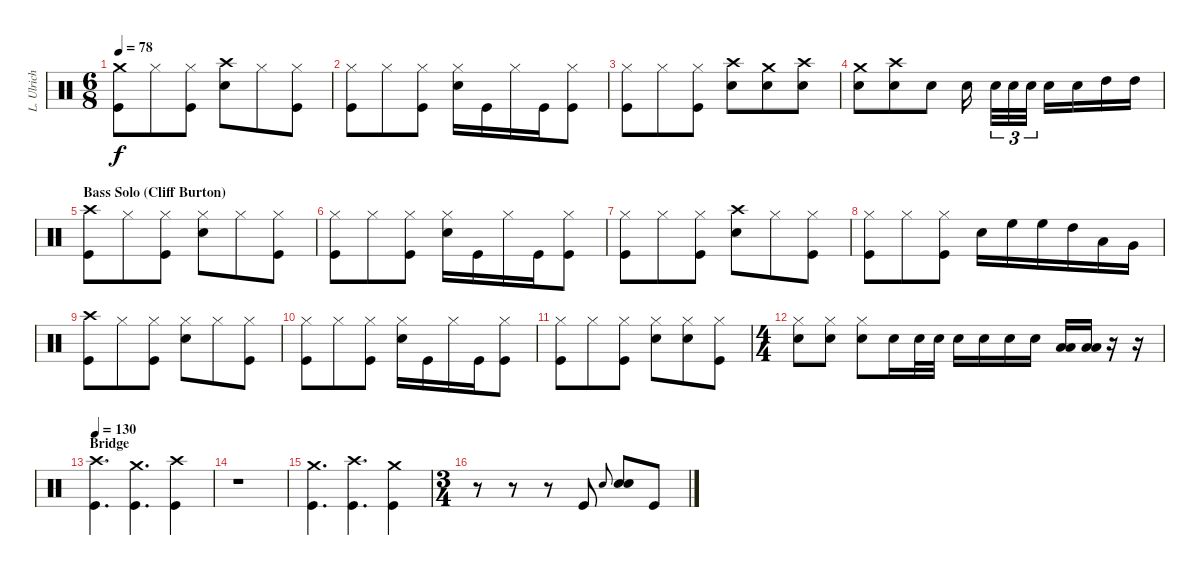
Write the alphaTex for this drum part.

\track ("L. Ulrich" "L. Ulrich") {instrument percussion}
\staff {score}
\articulation defaults
\ts (6 8)
\tempo 78
\clef neutral
\ks c
("Crash medium (hit)" "Kick (hit)").8{dy f} "Hi-Hat (closed)".8 ("Hi-Hat (closed)" "Kick (hit)").8 ("Crash high (hit)" "Snare (hit) 2").8 "Hi-Hat (closed)".8 ("Hi-Hat (closed)" "Kick (hit)").8 |
("Hi-Hat (closed)" "Kick (hit)").8 "Hi-Hat (closed)".8 ("Hi-Hat (closed)" "Kick (hit)").8 ("Hi-Hat (closed)" "Snare (hit) 2").16 "Kick (hit)".16 "Hi-Hat (closed)".16 "Kick (hit)".16 ("Hi-Hat (closed)" "Kick (hit)").8 |
("Hi-Hat (closed)" "Kick (hit)").8 "Hi-Hat (closed)".8 ("Hi-Hat (closed)" "Kick (hit)").8 ("Crash high (hit)" "Snare (hit) 2").8 ("Crash medium (hit)" "Snare (hit) 2").8 ("Crash high (hit)" "Snare (hit) 2").8 |
("Crash medium (hit)" "Snare (hit) 2").8 ("Crash high (hit)" "Snare (hit) 2").8 "Snare (hit) 2".8 "Snare (hit) 2".16 "Snare (hit) 2".32{tu (3 2)} "Snare (hit) 2".32{tu (3 2)} "Snare (hit) 2".32{tu (3 2)} "Snare (hit) 2".16 "Snare (hit) 2".16 "High Tom (hit)".16 "High Tom (hit)".16 |
\section ("" "Bass Solo (Cliff Burton)")
("Crash high (hit)" "Kick (hit)").8 "Hi-Hat (closed)".8 ("Hi-Hat (closed)" "Kick (hit)").8 ("Hi-Hat (closed)" "Snare (hit) 2").8 "Hi-Hat (closed)".8 ("Hi-Hat (closed)" "Kick (hit)").8 |
("Hi-Hat (closed)" "Kick (hit)").8 "Hi-Hat (closed)".8 ("Hi-Hat (closed)" "Kick (hit)").8 ("Hi-Hat (closed)" "Snare (hit) 2").16 "Kick (hit)".16 "Hi-Hat (closed)".16 "Kick (hit)".16 ("Hi-Hat (closed)" "Kick (hit)").8 |
("Hi-Hat (closed)" "Kick (hit)").8 "Hi-Hat (closed)".8 ("Hi-Hat (closed)" "Kick (hit)").8 ("Crash high (hit)" "Snare (hit) 2").8 "Hi-Hat (closed)".8 ("Hi-Hat (closed)" "Kick (hit)").8 |
("Hi-Hat (closed)" "Kick (hit)").8 "Hi-Hat (closed)".8 ("Hi-Hat (closed)" "Kick (hit)").8 "Snare (hit) 2".16 "High Floor Tom (hit)".16 "High Floor Tom (hit)".16 "High Tom (hit)".16 "Low Tom (hit)".16 "Very Low Tom (hit)".16 |
("Crash high (hit)" "Kick (hit)").8 "Hi-Hat (closed)".8 ("Hi-Hat (closed)" "Kick (hit)").8 ("Hi-Hat (closed)" "Snare (hit) 2").8 "Hi-Hat (closed)".8 ("Hi-Hat (closed)" "Kick (hit)").8 |
("Hi-Hat (closed)" "Kick (hit)").8 "Hi-Hat (closed)".8 ("Hi-Hat (closed)" "Kick (hit)").8 ("Hi-Hat (closed)" "Snare (hit) 2").16 "Kick (hit)".16 "Hi-Hat (closed)".16 "Kick (hit)".16 ("Hi-Hat (closed)" "Kick (hit)").8 |
("Hi-Hat (closed)" "Kick (hit)").8 "Hi-Hat (closed)".8 ("Hi-Hat (closed)" "Kick (hit)").8 ("Hi-Hat (closed)" "Snare (hit) 2").8 ("Hi-Hat (closed)" "Snare (hit) 2").8 ("Hi-Hat (closed)" "Kick (hit)").8 |
\ts (4 4)
("Hi-Hat (closed)" "Snare (hit) 2").8 ("Hi-Hat (closed)" "Snare (hit) 2").8 ("Hi-Hat (closed)" "Snare (hit) 2").8 "Snare (hit) 2".16 "Snare (hit) 2".32 "Snare (hit) 2".32 "Snare (hit) 2".16 "Snare (hit) 2".16 "Snare (hit) 2".16 "Snare (hit) 2".16 ("Low Tom (hit)" "Low Floor Tom (hit)").16 ("Low Tom (hit)" "Low Floor Tom (hit)").16 r.16 r.16 |
\section ("" "Bridge")
\tempo 130
("Crash high (hit)" "Kick (hit)").4{d} ("Crash medium (hit)" "Kick (hit)").4{d} ("Crash high (hit)" "Kick (hit)").4 |
r.1 |
("Crash medium (hit)" "Kick (hit)").4{d} ("Crash high (hit)" "Kick (hit)").4{d} ("Crash medium (hit)" "Kick (hit)").4 |
\ts (3 4)
r.8 r.8 r.8 "Kick (hit)".8 "Snare (hit) 2".8{gr onbeat} ("Snare (hit) 2" "Snare (hit) 2").8 "Kick (hit)".8
